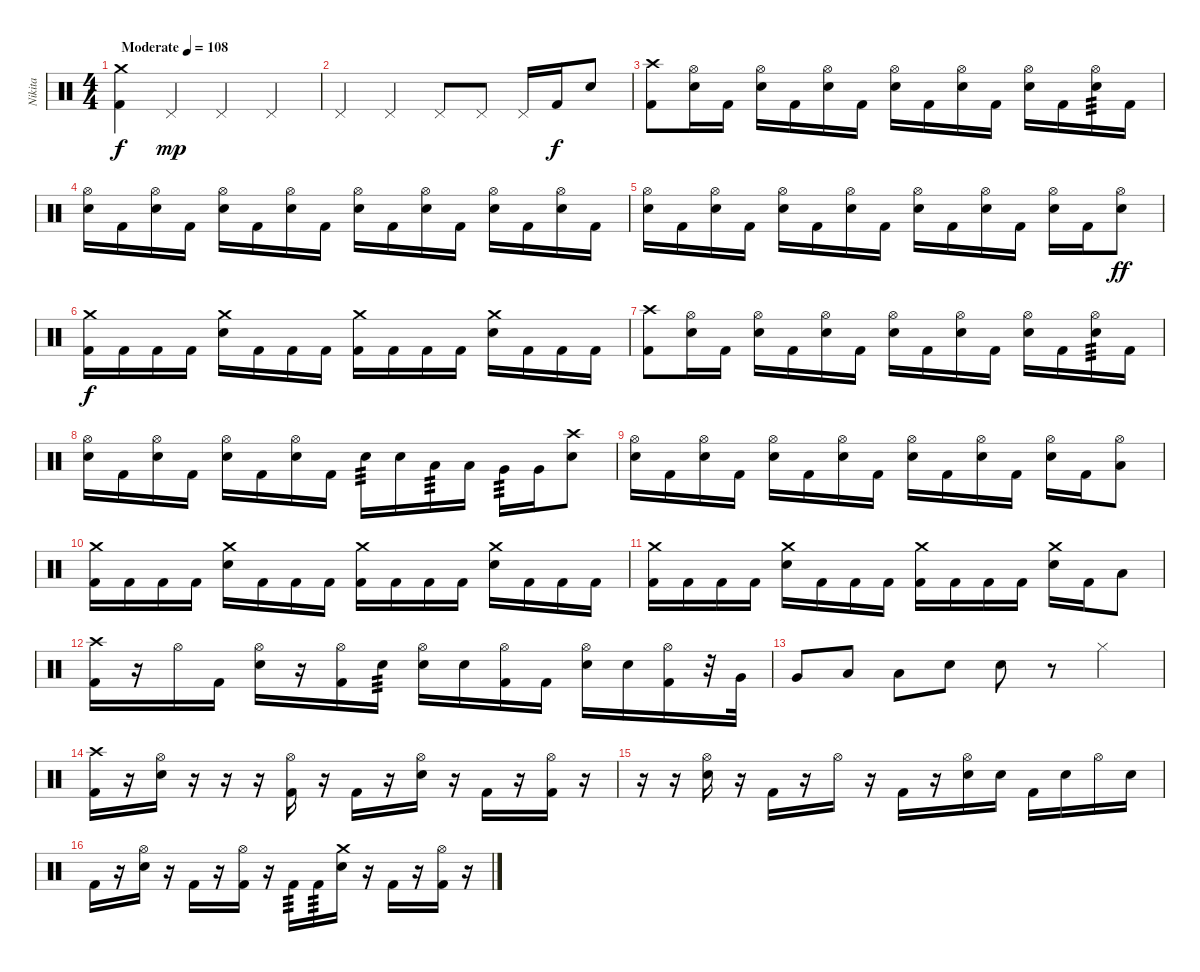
\track ("Nikita" "Nikita") {instrument percussion}
\staff {score}
\articulation defaults
\ts (4 4)
\tempo (108 "Moderate")
\clef neutral
\ks c
("Crash medium (hit)" "Kick (hit) 2").4{dy f} "Pedal Hi-Hat (hit)".4{dy mp} "Pedal Hi-Hat (hit)".4 "Pedal Hi-Hat (hit)".4 |
"Pedal Hi-Hat (hit)".4 "Pedal Hi-Hat (hit)".4 "Pedal Hi-Hat (hit)".8 "Pedal Hi-Hat (hit)".8 "Pedal Hi-Hat (hit)".16 "Kick (hit) 2".16{dy f} "Electric Snare (hit)".8 |
("Crash high (hit)" "Kick (hit) 2").8 ("Hi-Hat (open)" "Electric Snare (hit)").16 "Kick (hit) 2".16 ("Hi-Hat (open)" "Electric Snare (hit)").16 "Kick (hit) 2".16 ("Hi-Hat (open)" "Electric Snare (hit)").16 "Kick (hit) 2".16 ("Hi-Hat (open)" "Electric Snare (hit)").16 "Kick (hit) 2".16 ("Hi-Hat (open)" "Electric Snare (hit)").16 "Kick (hit) 2".16 ("Hi-Hat (open)" "Electric Snare (hit)").16 "Kick (hit) 2".16 ("Hi-Hat (open)" "Electric Snare (hit)").16{tp 3} "Kick (hit) 2".16 |
("Hi-Hat (open)" "Electric Snare (hit)").16 "Kick (hit) 2".16 ("Hi-Hat (open)" "Electric Snare (hit)").16 "Kick (hit) 2".16 ("Hi-Hat (open)" "Electric Snare (hit)").16 "Kick (hit) 2".16 ("Hi-Hat (open)" "Electric Snare (hit)").16 "Kick (hit) 2".16 ("Hi-Hat (open)" "Electric Snare (hit)").16 "Kick (hit) 2".16 ("Hi-Hat (open)" "Electric Snare (hit)").16 "Kick (hit) 2".16 ("Hi-Hat (open)" "Electric Snare (hit)").16 "Kick (hit) 2".16 ("Hi-Hat (open)" "Electric Snare (hit)").16 "Kick (hit) 2".16 |
("Hi-Hat (open)" "Electric Snare (hit)").16 "Kick (hit) 2".16 ("Hi-Hat (open)" "Electric Snare (hit)").16 "Kick (hit) 2".16 ("Hi-Hat (open)" "Electric Snare (hit)").16 "Kick (hit) 2".16 ("Hi-Hat (open)" "Electric Snare (hit)").16 "Kick (hit) 2".16 ("Hi-Hat (open)" "Electric Snare (hit)").16 "Kick (hit) 2".16 ("Hi-Hat (open)" "Electric Snare (hit)").16 "Kick (hit) 2".16 ("Hi-Hat (open)" "Electric Snare (hit)").16 "Kick (hit) 2".16 ("Hi-Hat (open)" "Electric Snare (hit)").8{dy ff} |
("Crash medium (hit)" "Kick (hit) 2").16{dy f} "Kick (hit) 2".16 "Kick (hit) 2".16 "Kick (hit) 2".16 ("Crash medium (hit)" "Electric Snare (hit)").16 "Kick (hit) 2".16 "Kick (hit) 2".16 "Kick (hit) 2".16 ("Crash medium (hit)" "Kick (hit) 2").16 "Kick (hit) 2".16 "Kick (hit) 2".16 "Kick (hit) 2".16 ("Crash medium (hit)" "Electric Snare (hit)").16 "Kick (hit) 2".16 "Kick (hit) 2".16 "Kick (hit) 2".16 |
("Crash high (hit)" "Kick (hit) 2").8 ("Hi-Hat (open)" "Electric Snare (hit)").16 "Kick (hit) 2".16 ("Hi-Hat (open)" "Electric Snare (hit)").16 "Kick (hit) 2".16 ("Hi-Hat (open)" "Electric Snare (hit)").16 "Kick (hit) 2".16 ("Hi-Hat (open)" "Electric Snare (hit)").16 "Kick (hit) 2".16 ("Hi-Hat (open)" "Electric Snare (hit)").16 "Kick (hit) 2".16 ("Hi-Hat (open)" "Electric Snare (hit)").16 "Kick (hit) 2".16 ("Hi-Hat (open)" "Electric Snare (hit)").16{tp 3} "Kick (hit) 2".16 |
("Hi-Hat (open)" "Electric Snare (hit)").16 "Kick (hit) 2".16 ("Hi-Hat (open)" "Electric Snare (hit)").16 "Kick (hit) 2".16 ("Hi-Hat (open)" "Electric Snare (hit)").16 "Kick (hit) 2".16 ("Hi-Hat (open)" "Electric Snare (hit)").16 "Kick (hit) 2".16 "Electric Snare (hit)".16{tp 3} "Electric Snare (hit)".16 "Low Tom (hit)".16{tp 3} "Low Tom (hit)".16 "Very Low Tom (hit)".16{tp 3} "Very Low Tom (hit)".16 ("Crash high (hit)" "Electric Snare (hit)").8 |
("Hi-Hat (open)" "Electric Snare (hit)").16 "Kick (hit) 2".16 ("Hi-Hat (open)" "Electric Snare (hit)").16 "Kick (hit) 2".16 ("Hi-Hat (open)" "Electric Snare (hit)").16 "Kick (hit) 2".16 ("Hi-Hat (open)" "Electric Snare (hit)").16 "Kick (hit) 2".16 ("Hi-Hat (open)" "Electric Snare (hit)").16 "Kick (hit) 2".16 ("Hi-Hat (open)" "Electric Snare (hit)").16 "Kick (hit) 2".16 ("Hi-Hat (open)" "Electric Snare (hit)").16 "Kick (hit) 2".16 ("Hi-Hat (open)" "Low Floor Tom (hit)").8 |
("Crash medium (hit)" "Kick (hit) 2").16 "Kick (hit) 2".16 "Kick (hit) 2".16 "Kick (hit) 2".16 ("Crash medium (hit)" "Electric Snare (hit)").16 "Kick (hit) 2".16 "Kick (hit) 2".16 "Kick (hit) 2".16 ("Crash medium (hit)" "Kick (hit) 2").16 "Kick (hit) 2".16 "Kick (hit) 2".16 "Kick (hit) 2".16 ("Crash medium (hit)" "Electric Snare (hit)").16 "Kick (hit) 2".16 "Kick (hit) 2".16 "Kick (hit) 2".16 |
("Crash medium (hit)" "Kick (hit) 2").16 "Kick (hit) 2".16 "Kick (hit) 2".16 "Kick (hit) 2".16 ("Crash medium (hit)" "Electric Snare (hit)").16 "Kick (hit) 2".16 "Kick (hit) 2".16 "Kick (hit) 2".16 ("Crash medium (hit)" "Kick (hit) 2").16 "Kick (hit) 2".16 "Kick (hit) 2".16 "Kick (hit) 2".16 ("Crash medium (hit)" "Electric Snare (hit)").16 "Kick (hit) 2".16 "Low Tom (hit)".8 |
("Crash high (hit)" "Kick (hit) 2").16 r.16 "Hi-Hat (open)".16 "Kick (hit) 2".16 ("Hi-Hat (open)" "Electric Snare (hit)").16 r.16 ("Hi-Hat (open)" "Kick (hit) 2").16 "Electric Snare (hit)".16{tp 3} ("Hi-Hat (open)" "Electric Snare (hit)").16 "Electric Snare (hit)".16 ("Hi-Hat (open)" "Kick (hit) 2").16 "Kick (hit) 2".16 ("Hi-Hat (open)" "Electric Snare (hit)").16 "Electric Snare (hit)".16 ("Hi-Hat (open)" "Kick (hit) 2").16 r.32 "Very Low Tom (hit)".32 |
"Very Low Tom (hit)".8 "Low Floor Tom (hit)".8 "Low Floor Tom (hit)".8 "Electric Snare (hit)".8 "Electric Snare (hit)".8 r.8 "Hi-Hat (closed)".4 |
("Crash high (hit)" "Kick (hit) 2").16 r.16 ("Hi-Hat (open)" "Electric Snare (hit)").16 r.16 r.16 r.16 ("Hi-Hat (open)" "Kick (hit) 2").16 r.16 "Kick (hit) 2".16 r.16 ("Hi-Hat (open)" "Electric Snare (hit)").16 r.16 "Kick (hit) 2".16 r.16 ("Hi-Hat (open)" "Kick (hit) 2").16 r.16 |
r.16 r.16 ("Hi-Hat (open)" "Electric Snare (hit)").16 r.16 "Kick (hit) 2".16 r.16 "Hi-Hat (open)".16 r.16 "Kick (hit) 2".16 r.16 ("Hi-Hat (open)" "Electric Snare (hit)").16 "Electric Snare (hit)".16 "Kick (hit) 2".16 "Electric Snare (hit)".16 "Hi-Hat (open)".16 "Electric Snare (hit)".16 |
"Kick (hit) 2".16 r.16 ("Hi-Hat (open)" "Electric Snare (hit)").16 r.16 "Kick (hit) 2".16 r.16 ("Hi-Hat (open)" "Kick (hit) 2").16 r.16 "Kick (hit) 2".16{tp 3} "Kick (hit) 2".16{tp 3} ("Crash medium (hit)" "Electric Snare (hit)").16 r.16 "Kick (hit) 2".16 r.16 ("Hi-Hat (open)" "Kick (hit) 2").16 r.16
